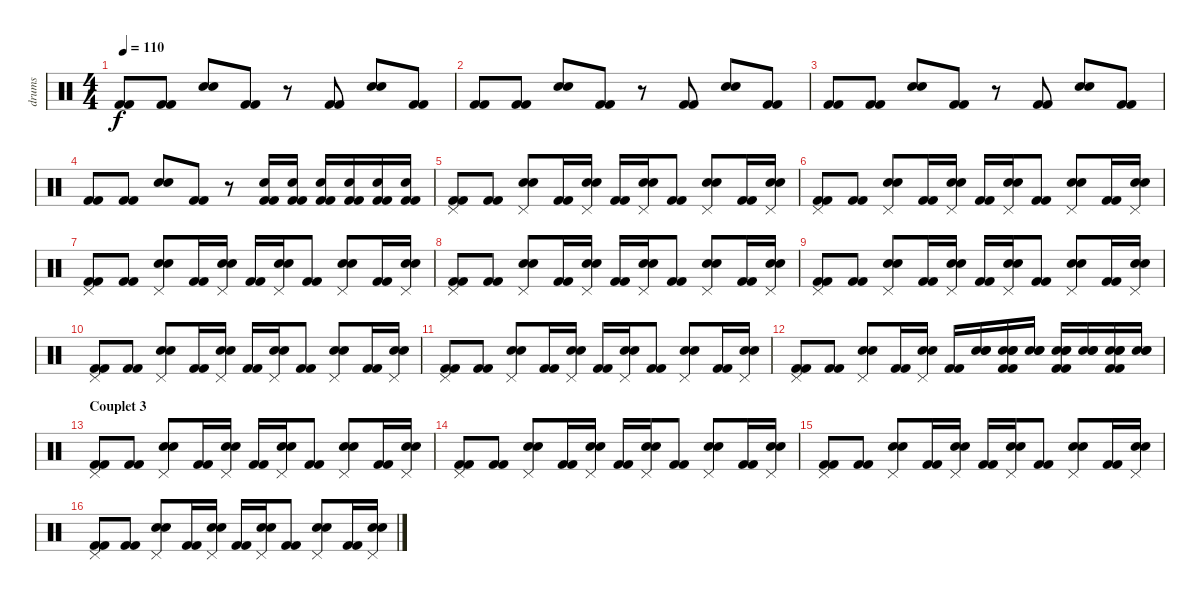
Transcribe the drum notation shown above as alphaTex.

\track ("drums" "drums") {instrument percussion}
\staff {score}
\articulation defaults
\ts (4 4)
\tempo 110
\clef neutral
\ks c
("Kick (hit) 2" "Kick (hit) 2").8{dy f} ("Kick (hit) 2" "Kick (hit) 2").8 ("Snare (hit) 2" "Snare (hit) 2").8 ("Kick (hit) 2" "Kick (hit) 2").8 r.8 ("Kick (hit) 2" "Kick (hit) 2").8 ("Snare (hit) 2" "Snare (hit) 2").8 ("Kick (hit) 2" "Kick (hit) 2").8 |
("Kick (hit) 2" "Kick (hit) 2").8 ("Kick (hit) 2" "Kick (hit) 2").8 ("Snare (hit) 2" "Snare (hit) 2").8 ("Kick (hit) 2" "Kick (hit) 2").8 r.8 ("Kick (hit) 2" "Kick (hit) 2").8 ("Snare (hit) 2" "Snare (hit) 2").8 ("Kick (hit) 2" "Kick (hit) 2").8 |
("Kick (hit) 2" "Kick (hit) 2").8 ("Kick (hit) 2" "Kick (hit) 2").8 ("Snare (hit) 2" "Snare (hit) 2").8 ("Kick (hit) 2" "Kick (hit) 2").8 r.8 ("Kick (hit) 2" "Kick (hit) 2").8 ("Snare (hit) 2" "Snare (hit) 2").8 ("Kick (hit) 2" "Kick (hit) 2").8 |
("Kick (hit) 2" "Kick (hit) 2").8 ("Kick (hit) 2" "Kick (hit) 2").8 ("Snare (hit) 2" "Snare (hit) 2").8 ("Kick (hit) 2" "Kick (hit) 2").8 r.8 ("Snare (hit) 2" "Kick (hit) 2" "Kick (hit) 2").16 ("Snare (hit) 2" "Kick (hit) 2" "Kick (hit) 2").16 ("Snare (hit) 2" "Kick (hit) 2" "Kick (hit) 2").16 ("Snare (hit) 2" "Kick (hit) 2" "Kick (hit) 2").16 ("Snare (hit) 2" "Kick (hit) 2" "Kick (hit) 2").16 ("Snare (hit) 2" "Kick (hit) 2" "Kick (hit) 2").16 |
("Pedal Hi-Hat (hit)" "Kick (hit) 2" "Kick (hit) 2").8 ("Kick (hit) 2" "Kick (hit) 2").8 ("Snare (hit) 2" "Snare (hit) 2" "Pedal Hi-Hat (hit)").8 ("Kick (hit) 2" "Kick (hit) 2").16 ("Snare (hit) 2" "Snare (hit) 2" "Pedal Hi-Hat (hit)").16 ("Kick (hit) 2" "Kick (hit) 2").16 ("Snare (hit) 2" "Snare (hit) 2" "Pedal Hi-Hat (hit)").16 ("Kick (hit) 2" "Kick (hit) 2").8 ("Snare (hit) 2" "Snare (hit) 2" "Pedal Hi-Hat (hit)").8 ("Kick (hit) 2" "Kick (hit) 2").16 ("Snare (hit) 2" "Snare (hit) 2" "Pedal Hi-Hat (hit)").16 |
("Pedal Hi-Hat (hit)" "Kick (hit) 2" "Kick (hit) 2").8 ("Kick (hit) 2" "Kick (hit) 2").8 ("Snare (hit) 2" "Snare (hit) 2" "Pedal Hi-Hat (hit)").8 ("Kick (hit) 2" "Kick (hit) 2").16 ("Snare (hit) 2" "Snare (hit) 2" "Pedal Hi-Hat (hit)").16 ("Kick (hit) 2" "Kick (hit) 2").16 ("Snare (hit) 2" "Snare (hit) 2" "Pedal Hi-Hat (hit)").16 ("Kick (hit) 2" "Kick (hit) 2").8 ("Snare (hit) 2" "Snare (hit) 2" "Pedal Hi-Hat (hit)").8 ("Kick (hit) 2" "Kick (hit) 2").16 ("Snare (hit) 2" "Snare (hit) 2" "Pedal Hi-Hat (hit)").16 |
("Pedal Hi-Hat (hit)" "Kick (hit) 2" "Kick (hit) 2").8 ("Kick (hit) 2" "Kick (hit) 2").8 ("Snare (hit) 2" "Snare (hit) 2" "Pedal Hi-Hat (hit)").8 ("Kick (hit) 2" "Kick (hit) 2").16 ("Snare (hit) 2" "Snare (hit) 2" "Pedal Hi-Hat (hit)").16 ("Kick (hit) 2" "Kick (hit) 2").16 ("Snare (hit) 2" "Snare (hit) 2" "Pedal Hi-Hat (hit)").16 ("Kick (hit) 2" "Kick (hit) 2").8 ("Snare (hit) 2" "Snare (hit) 2" "Pedal Hi-Hat (hit)").8 ("Kick (hit) 2" "Kick (hit) 2").16 ("Snare (hit) 2" "Snare (hit) 2" "Pedal Hi-Hat (hit)").16 |
("Pedal Hi-Hat (hit)" "Kick (hit) 2" "Kick (hit) 2").8 ("Kick (hit) 2" "Kick (hit) 2").8 ("Snare (hit) 2" "Snare (hit) 2" "Pedal Hi-Hat (hit)").8 ("Kick (hit) 2" "Kick (hit) 2").16 ("Snare (hit) 2" "Snare (hit) 2" "Pedal Hi-Hat (hit)").16 ("Kick (hit) 2" "Kick (hit) 2").16 ("Snare (hit) 2" "Snare (hit) 2" "Pedal Hi-Hat (hit)").16 ("Kick (hit) 2" "Kick (hit) 2").8 ("Snare (hit) 2" "Snare (hit) 2" "Pedal Hi-Hat (hit)").8 ("Kick (hit) 2" "Kick (hit) 2").16 ("Snare (hit) 2" "Snare (hit) 2" "Pedal Hi-Hat (hit)").16 |
("Pedal Hi-Hat (hit)" "Kick (hit) 2" "Kick (hit) 2").8 ("Kick (hit) 2" "Kick (hit) 2").8 ("Snare (hit) 2" "Snare (hit) 2" "Pedal Hi-Hat (hit)").8 ("Kick (hit) 2" "Kick (hit) 2").16 ("Snare (hit) 2" "Snare (hit) 2" "Pedal Hi-Hat (hit)").16 ("Kick (hit) 2" "Kick (hit) 2").16 ("Snare (hit) 2" "Snare (hit) 2" "Pedal Hi-Hat (hit)").16 ("Kick (hit) 2" "Kick (hit) 2").8 ("Snare (hit) 2" "Snare (hit) 2" "Pedal Hi-Hat (hit)").8 ("Kick (hit) 2" "Kick (hit) 2").16 ("Snare (hit) 2" "Snare (hit) 2" "Pedal Hi-Hat (hit)").16 |
("Pedal Hi-Hat (hit)" "Kick (hit) 2" "Kick (hit) 2").8 ("Kick (hit) 2" "Kick (hit) 2").8 ("Snare (hit) 2" "Snare (hit) 2" "Pedal Hi-Hat (hit)").8 ("Kick (hit) 2" "Kick (hit) 2").16 ("Snare (hit) 2" "Snare (hit) 2" "Pedal Hi-Hat (hit)").16 ("Kick (hit) 2" "Kick (hit) 2").16 ("Snare (hit) 2" "Snare (hit) 2" "Pedal Hi-Hat (hit)").16 ("Kick (hit) 2" "Kick (hit) 2").8 ("Snare (hit) 2" "Snare (hit) 2" "Pedal Hi-Hat (hit)").8 ("Kick (hit) 2" "Kick (hit) 2").16 ("Snare (hit) 2" "Snare (hit) 2" "Pedal Hi-Hat (hit)").16 |
("Pedal Hi-Hat (hit)" "Kick (hit) 2" "Kick (hit) 2").8 ("Kick (hit) 2" "Kick (hit) 2").8 ("Snare (hit) 2" "Snare (hit) 2" "Pedal Hi-Hat (hit)").8 ("Kick (hit) 2" "Kick (hit) 2").16 ("Snare (hit) 2" "Snare (hit) 2" "Pedal Hi-Hat (hit)").16 ("Kick (hit) 2" "Kick (hit) 2").16 ("Snare (hit) 2" "Snare (hit) 2" "Pedal Hi-Hat (hit)").16 ("Kick (hit) 2" "Kick (hit) 2").8 ("Snare (hit) 2" "Snare (hit) 2" "Pedal Hi-Hat (hit)").8 ("Kick (hit) 2" "Kick (hit) 2").16 ("Snare (hit) 2" "Snare (hit) 2" "Pedal Hi-Hat (hit)").16 |
("Pedal Hi-Hat (hit)" "Kick (hit) 2" "Kick (hit) 2").8 ("Kick (hit) 2" "Kick (hit) 2").8 ("Snare (hit) 2" "Snare (hit) 2" "Pedal Hi-Hat (hit)").8 ("Kick (hit) 2" "Kick (hit) 2").16 ("Snare (hit) 2" "Snare (hit) 2" "Pedal Hi-Hat (hit)").16 ("Kick (hit) 2" "Kick (hit) 2").16 ("Snare (hit) 2" "Snare (hit) 2" "Snare (hit) 2").16 ("Snare (hit) 2" "Snare (hit) 2" "Snare (hit) 2" "Kick (hit) 2" "Kick (hit) 2").16 ("Snare (hit) 2" "Snare (hit) 2" "Snare (hit) 2").16 ("Snare (hit) 2" "Snare (hit) 2" "Snare (hit) 2" "Kick (hit) 2" "Kick (hit) 2").16 ("Snare (hit) 2" "Snare (hit) 2" "Snare (hit) 2").16 ("Snare (hit) 2" "Snare (hit) 2" "Snare (hit) 2" "Kick (hit) 2" "Kick (hit) 2").16 ("Snare (hit) 2" "Snare (hit) 2" "Snare (hit) 2").16 |
\section ("" "Couplet 3")
("Pedal Hi-Hat (hit)" "Kick (hit) 2" "Kick (hit) 2").8 ("Kick (hit) 2" "Kick (hit) 2").8 ("Snare (hit) 2" "Snare (hit) 2" "Pedal Hi-Hat (hit)").8 ("Kick (hit) 2" "Kick (hit) 2").16 ("Snare (hit) 2" "Snare (hit) 2" "Pedal Hi-Hat (hit)").16 ("Kick (hit) 2" "Kick (hit) 2").16 ("Snare (hit) 2" "Snare (hit) 2" "Pedal Hi-Hat (hit)").16 ("Kick (hit) 2" "Kick (hit) 2").8 ("Snare (hit) 2" "Snare (hit) 2" "Pedal Hi-Hat (hit)").8 ("Kick (hit) 2" "Kick (hit) 2").16 ("Snare (hit) 2" "Snare (hit) 2" "Pedal Hi-Hat (hit)").16 |
("Pedal Hi-Hat (hit)" "Kick (hit) 2" "Kick (hit) 2").8 ("Kick (hit) 2" "Kick (hit) 2").8 ("Snare (hit) 2" "Snare (hit) 2" "Pedal Hi-Hat (hit)").8 ("Kick (hit) 2" "Kick (hit) 2").16 ("Snare (hit) 2" "Snare (hit) 2" "Pedal Hi-Hat (hit)").16 ("Kick (hit) 2" "Kick (hit) 2").16 ("Snare (hit) 2" "Snare (hit) 2" "Pedal Hi-Hat (hit)").16 ("Kick (hit) 2" "Kick (hit) 2").8 ("Snare (hit) 2" "Snare (hit) 2" "Pedal Hi-Hat (hit)").8 ("Kick (hit) 2" "Kick (hit) 2").16 ("Snare (hit) 2" "Snare (hit) 2" "Pedal Hi-Hat (hit)").16 |
("Pedal Hi-Hat (hit)" "Kick (hit) 2" "Kick (hit) 2").8 ("Kick (hit) 2" "Kick (hit) 2").8 ("Snare (hit) 2" "Snare (hit) 2" "Pedal Hi-Hat (hit)").8 ("Kick (hit) 2" "Kick (hit) 2").16 ("Snare (hit) 2" "Snare (hit) 2" "Pedal Hi-Hat (hit)").16 ("Kick (hit) 2" "Kick (hit) 2").16 ("Snare (hit) 2" "Snare (hit) 2" "Pedal Hi-Hat (hit)").16 ("Kick (hit) 2" "Kick (hit) 2").8 ("Snare (hit) 2" "Snare (hit) 2" "Pedal Hi-Hat (hit)").8 ("Kick (hit) 2" "Kick (hit) 2").16 ("Snare (hit) 2" "Snare (hit) 2" "Pedal Hi-Hat (hit)").16 |
("Pedal Hi-Hat (hit)" "Kick (hit) 2" "Kick (hit) 2").8 ("Kick (hit) 2" "Kick (hit) 2").8 ("Snare (hit) 2" "Snare (hit) 2" "Pedal Hi-Hat (hit)").8 ("Kick (hit) 2" "Kick (hit) 2").16 ("Snare (hit) 2" "Snare (hit) 2" "Pedal Hi-Hat (hit)").16 ("Kick (hit) 2" "Kick (hit) 2").16 ("Snare (hit) 2" "Snare (hit) 2" "Pedal Hi-Hat (hit)").16 ("Kick (hit) 2" "Kick (hit) 2").8 ("Snare (hit) 2" "Snare (hit) 2" "Pedal Hi-Hat (hit)").8 ("Kick (hit) 2" "Kick (hit) 2").16 ("Snare (hit) 2" "Snare (hit) 2" "Pedal Hi-Hat (hit)").16
